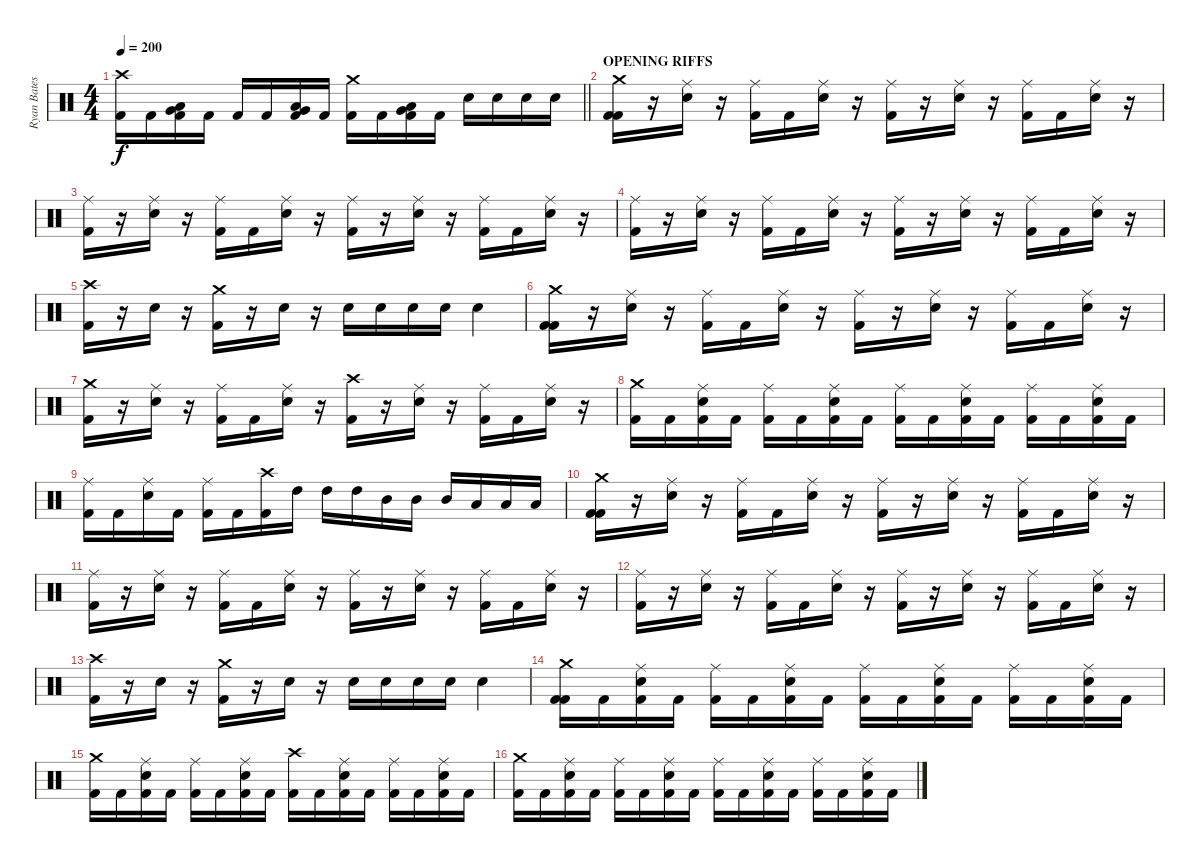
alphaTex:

\track ("Ryan Bates" "Ryan Bates") {instrument percussion}
\staff {score}
\articulation defaults
\ts (4 4)
\tempo 200
\clef neutral
\barLineRight lightlight
\ks c
("Crash high (hit)" "Kick (hit) 2").16{dy f} "Kick (hit) 2".16 ("Low Tom (hit)" "Very Low Tom (hit)" "Kick (hit) 2").16 "Kick (hit) 2".16 "Kick (hit) 2".16 "Kick (hit) 2".16 ("Low Tom (hit)" "Very Low Tom (hit)" "Kick (hit) 2").16 "Kick (hit) 2".16 ("Crash medium (hit)" "Kick (hit) 2").16 "Kick (hit) 2".16 ("Low Tom (hit)" "Very Low Tom (hit)" "Kick (hit) 2").16 "Kick (hit) 2".16 "Electric Snare (hit)".16 "Electric Snare (hit)".16 "Electric Snare (hit)".16 "Electric Snare (hit)".16 |
\section ("" "OPENING RIFFS")
("Crash medium (hit)" "Kick (hit) 2" "Kick (hit) 2").16 r.16 ("Ride (middle)" "Electric Snare (hit)").16 r.16 ("Ride (middle)" "Kick (hit) 2").16 "Kick (hit) 2".16 ("Ride (middle)" "Electric Snare (hit)").16 r.16 ("Ride (middle)" "Kick (hit) 2").16 r.16 ("Ride (middle)" "Electric Snare (hit)").16 r.16 ("Ride (middle)" "Kick (hit) 2").16 "Kick (hit) 2".16 ("Ride (middle)" "Electric Snare (hit)").16 r.16 |
("Ride (middle)" "Kick (hit) 2").16 r.16 ("Ride (middle)" "Electric Snare (hit)").16 r.16 ("Ride (middle)" "Kick (hit) 2").16 "Kick (hit) 2".16 ("Ride (middle)" "Electric Snare (hit)").16 r.16 ("Ride (middle)" "Kick (hit) 2").16 r.16 ("Ride (middle)" "Electric Snare (hit)").16 r.16 ("Ride (middle)" "Kick (hit) 2").16 "Kick (hit) 2".16 ("Ride (middle)" "Electric Snare (hit)").16 r.16 |
("Ride (middle)" "Kick (hit) 2").16 r.16 ("Ride (middle)" "Electric Snare (hit)").16 r.16 ("Ride (middle)" "Kick (hit) 2").16 "Kick (hit) 2".16 ("Ride (middle)" "Electric Snare (hit)").16 r.16 ("Ride (middle)" "Kick (hit) 2").16 r.16 ("Ride (middle)" "Electric Snare (hit)").16 r.16 ("Ride (middle)" "Kick (hit) 2").16 "Kick (hit) 2".16 ("Ride (middle)" "Electric Snare (hit)").16 r.16 |
("Crash high (hit)" "Kick (hit) 2").16 r.16 "Electric Snare (hit)".16 r.16 ("Crash medium (hit)" "Kick (hit) 2").16 r.16 "Electric Snare (hit)".16 r.16 "Electric Snare (hit)".16 "Electric Snare (hit)".16 "Electric Snare (hit)".16 "Electric Snare (hit)".16 "Electric Snare (hit)".4 |
("Crash medium (hit)" "Kick (hit) 2" "Kick (hit) 2").16 r.16 ("Ride (middle)" "Electric Snare (hit)").16 r.16 ("Ride (middle)" "Kick (hit) 2").16 "Kick (hit) 2".16 ("Ride (middle)" "Electric Snare (hit)").16 r.16 ("Ride (middle)" "Kick (hit) 2").16 r.16 ("Ride (middle)" "Electric Snare (hit)").16 r.16 ("Ride (middle)" "Kick (hit) 2").16 "Kick (hit) 2".16 ("Ride (middle)" "Electric Snare (hit)").16 r.16 |
("Crash medium (hit)" "Kick (hit) 2").16 r.16 ("Ride (middle)" "Electric Snare (hit)").16 r.16 ("Ride (middle)" "Kick (hit) 2").16 "Kick (hit) 2".16 ("Ride (middle)" "Electric Snare (hit)").16 r.16 ("Crash high (hit)" "Kick (hit) 2").16 r.16 ("Ride (middle)" "Electric Snare (hit)").16 r.16 ("Ride (middle)" "Kick (hit) 2").16 "Kick (hit) 2".16 ("Ride (middle)" "Electric Snare (hit)").16 r.16 |
("Crash medium (hit)" "Kick (hit) 2").16 "Kick (hit) 2".16 ("Ride (middle)" "Electric Snare (hit)" "Kick (hit) 2").16 "Kick (hit) 2".16 ("Ride (middle)" "Kick (hit) 2").16 "Kick (hit) 2".16 ("Ride (middle)" "Electric Snare (hit)" "Kick (hit) 2").16 "Kick (hit) 2".16 ("Ride (middle)" "Kick (hit) 2").16 "Kick (hit) 2".16 ("Ride (middle)" "Electric Snare (hit)" "Kick (hit) 2").16 "Kick (hit) 2".16 ("Ride (middle)" "Kick (hit) 2").16 "Kick (hit) 2".16 ("Ride (middle)" "Electric Snare (hit)" "Kick (hit) 2").16 "Kick (hit) 2".16 |
("Ride (middle)" "Kick (hit) 2").16 "Kick (hit) 2".16 ("Ride (middle)" "Electric Snare (hit)").16 "Kick (hit) 2".16 ("Ride (middle)" "Kick (hit) 2").16 "Kick (hit) 2".16 ("Crash high (hit)" "Kick (hit) 2").16 "High Tom (hit)".16 "High Tom (hit)".16 "High Tom (hit)".16 "Mid Tom (hit)".16 "Mid Tom (hit)".16 "Mid Tom (hit)".16 "Low Tom (hit)".16 "Low Tom (hit)".16 "Low Tom (hit)".16 |
("Crash medium (hit)" "Kick (hit) 2" "Kick (hit) 2").16 r.16 ("Ride (middle)" "Electric Snare (hit)").16 r.16 ("Ride (middle)" "Kick (hit) 2").16 "Kick (hit) 2".16 ("Ride (middle)" "Electric Snare (hit)").16 r.16 ("Ride (middle)" "Kick (hit) 2").16 r.16 ("Ride (middle)" "Electric Snare (hit)").16 r.16 ("Ride (middle)" "Kick (hit) 2").16 "Kick (hit) 2".16 ("Ride (middle)" "Electric Snare (hit)").16 r.16 |
("Ride (middle)" "Kick (hit) 2").16 r.16 ("Ride (middle)" "Electric Snare (hit)").16 r.16 ("Ride (middle)" "Kick (hit) 2").16 "Kick (hit) 2".16 ("Ride (middle)" "Electric Snare (hit)").16 r.16 ("Ride (middle)" "Kick (hit) 2").16 r.16 ("Ride (middle)" "Electric Snare (hit)").16 r.16 ("Ride (middle)" "Kick (hit) 2").16 "Kick (hit) 2".16 ("Ride (middle)" "Electric Snare (hit)").16 r.16 |
("Ride (middle)" "Kick (hit) 2").16 r.16 ("Ride (middle)" "Electric Snare (hit)").16 r.16 ("Ride (middle)" "Kick (hit) 2").16 "Kick (hit) 2".16 ("Ride (middle)" "Electric Snare (hit)").16 r.16 ("Ride (middle)" "Kick (hit) 2").16 r.16 ("Ride (middle)" "Electric Snare (hit)").16 r.16 ("Ride (middle)" "Kick (hit) 2").16 "Kick (hit) 2".16 ("Ride (middle)" "Electric Snare (hit)").16 r.16 |
("Crash high (hit)" "Kick (hit) 2").16 r.16 "Electric Snare (hit)".16 r.16 ("Crash medium (hit)" "Kick (hit) 2").16 r.16 "Electric Snare (hit)".16 r.16 "Electric Snare (hit)".16 "Electric Snare (hit)".16 "Electric Snare (hit)".16 "Electric Snare (hit)".16 "Electric Snare (hit)".4 |
("Crash medium (hit)" "Kick (hit) 2" "Kick (hit) 2").16 "Kick (hit) 2".16 ("Ride (middle)" "Electric Snare (hit)" "Kick (hit) 2").16 "Kick (hit) 2".16 ("Ride (middle)" "Kick (hit) 2").16 "Kick (hit) 2".16 ("Ride (middle)" "Electric Snare (hit)" "Kick (hit) 2").16 "Kick (hit) 2".16 ("Ride (middle)" "Kick (hit) 2").16 "Kick (hit) 2".16 ("Ride (middle)" "Electric Snare (hit)" "Kick (hit) 2").16 "Kick (hit) 2".16 ("Ride (middle)" "Kick (hit) 2").16 "Kick (hit) 2".16 ("Ride (middle)" "Electric Snare (hit)" "Kick (hit) 2").16 "Kick (hit) 2".16 |
("Crash medium (hit)" "Kick (hit) 2").16 "Kick (hit) 2".16 ("Ride (middle)" "Electric Snare (hit)" "Kick (hit) 2").16 "Kick (hit) 2".16 ("Ride (middle)" "Kick (hit) 2").16 "Kick (hit) 2".16 ("Ride (middle)" "Electric Snare (hit)" "Kick (hit) 2").16 "Kick (hit) 2".16 ("Crash high (hit)" "Kick (hit) 2").16 "Kick (hit) 2".16 ("Ride (middle)" "Electric Snare (hit)" "Kick (hit) 2").16 "Kick (hit) 2".16 ("Ride (middle)" "Kick (hit) 2").16 "Kick (hit) 2".16 ("Ride (middle)" "Electric Snare (hit)" "Kick (hit) 2").16 "Kick (hit) 2".16 |
("Crash medium (hit)" "Kick (hit) 2").16 "Kick (hit) 2".16 ("Ride (middle)" "Electric Snare (hit)" "Kick (hit) 2").16 "Kick (hit) 2".16 ("Ride (middle)" "Kick (hit) 2").16 "Kick (hit) 2".16 ("Ride (middle)" "Electric Snare (hit)" "Kick (hit) 2").16 "Kick (hit) 2".16 ("Ride (middle)" "Kick (hit) 2").16 "Kick (hit) 2".16 ("Ride (middle)" "Electric Snare (hit)" "Kick (hit) 2").16 "Kick (hit) 2".16 ("Ride (middle)" "Kick (hit) 2").16 "Kick (hit) 2".16 ("Ride (middle)" "Electric Snare (hit)" "Kick (hit) 2").16 "Kick (hit) 2".16
